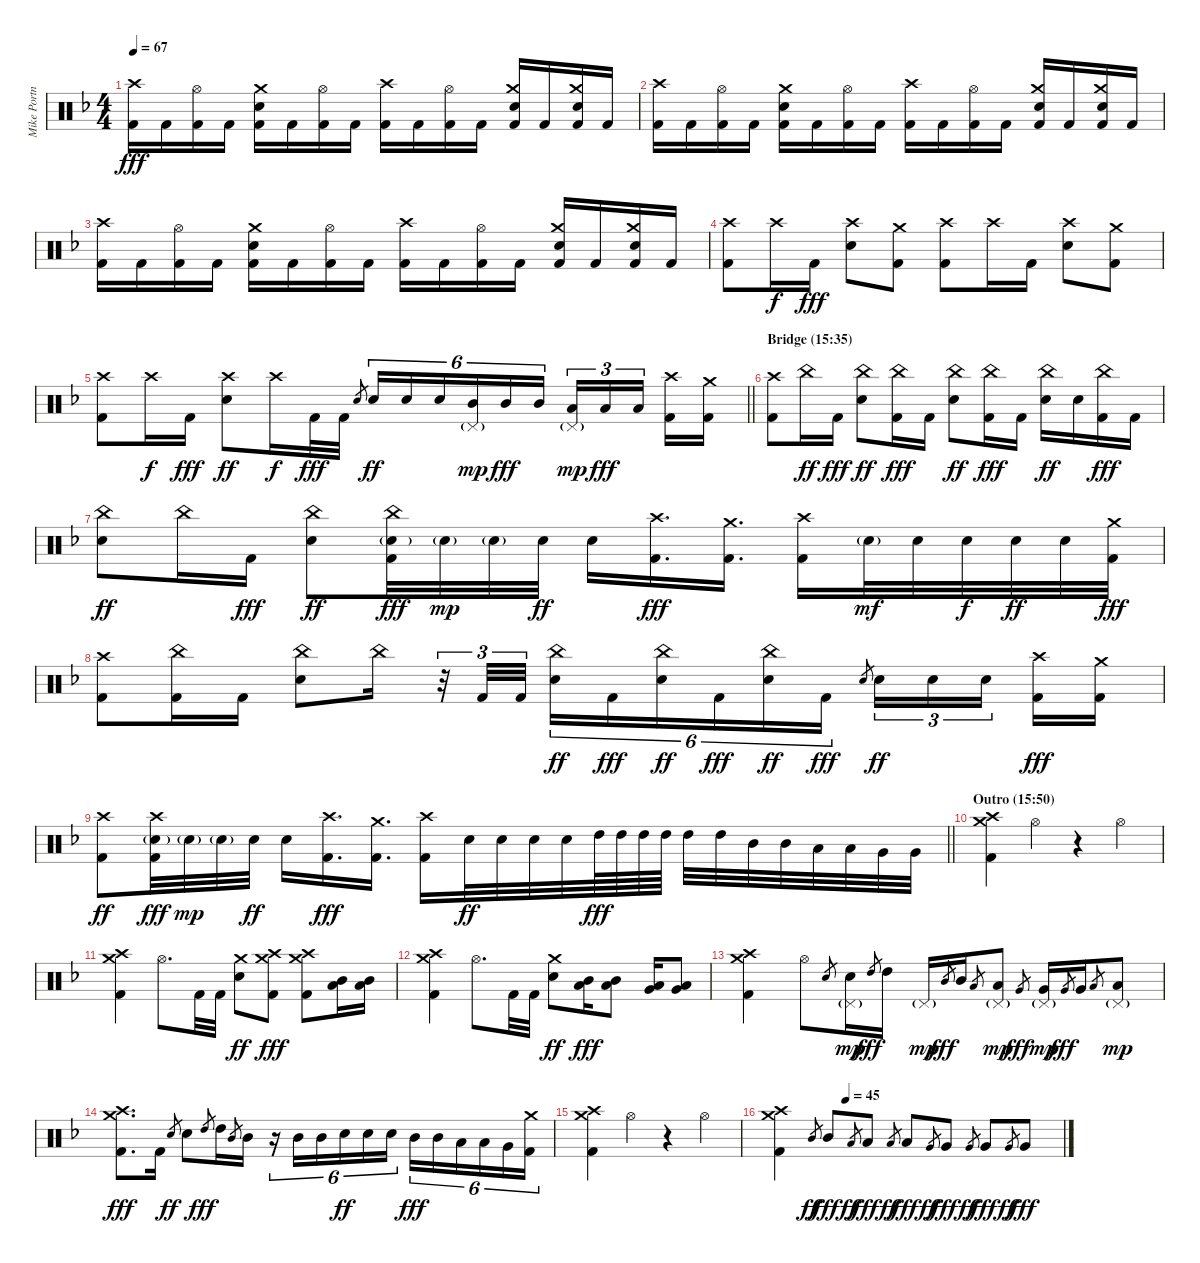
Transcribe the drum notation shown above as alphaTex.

\track ("Mike Portnoy Drums" "Mike Portn") {instrument percussion}
\staff {score}
\articulation defaults
\ts (4 4)
\tempo 67
\clef neutral
\ks dminor
("Crash high (hit)" "Kick (hit) 2").16{dy fff} "Kick (hit) 2".16 ("Hi-Hat (open)" "Kick (hit) 2").16 "Kick (hit) 2".16 ("Crash medium (hit)" "Electric Snare (hit)" "Kick (hit) 2").16 "Kick (hit) 2".16 ("Hi-Hat (open)" "Kick (hit) 2").16 "Kick (hit) 2".16 ("Crash high (hit)" "Kick (hit) 2").16 "Kick (hit) 2".16 ("Hi-Hat (open)" "Kick (hit) 2").16 "Kick (hit) 2".16 ("Crash medium (hit)" "Electric Snare (hit)" "Kick (hit) 2").16 "Kick (hit) 2".16 ("Crash medium (hit)" "Electric Snare (hit)" "Kick (hit) 2").16 "Kick (hit) 2".16 |
("Crash high (hit)" "Kick (hit) 2").16 "Kick (hit) 2".16 ("Hi-Hat (open)" "Kick (hit) 2").16 "Kick (hit) 2".16 ("Crash medium (hit)" "Electric Snare (hit)" "Kick (hit) 2").16 "Kick (hit) 2".16 ("Hi-Hat (open)" "Kick (hit) 2").16 "Kick (hit) 2".16 ("Crash high (hit)" "Kick (hit) 2").16 "Kick (hit) 2".16 ("Hi-Hat (open)" "Kick (hit) 2").16 "Kick (hit) 2".16 ("Crash medium (hit)" "Electric Snare (hit)" "Kick (hit) 2").16 "Kick (hit) 2".16 ("Crash medium (hit)" "Electric Snare (hit)" "Kick (hit) 2").16 "Kick (hit) 2".16 |
("Crash high (hit)" "Kick (hit) 2").16 "Kick (hit) 2".16 ("Hi-Hat (open)" "Kick (hit) 2").16 "Kick (hit) 2".16 ("Crash medium (hit)" "Electric Snare (hit)" "Kick (hit) 2").16 "Kick (hit) 2".16 ("Hi-Hat (open)" "Kick (hit) 2").16 "Kick (hit) 2".16 ("Crash high (hit)" "Kick (hit) 2").16 "Kick (hit) 2".16 ("Hi-Hat (open)" "Kick (hit) 2").16 "Kick (hit) 2".16 ("Crash medium (hit)" "Electric Snare (hit)" "Kick (hit) 2").16 "Kick (hit) 2".16 ("Crash medium (hit)" "Electric Snare (hit)" "Kick (hit) 2").16 "Kick (hit) 2".16 |
("Crash high (hit)" "Kick (hit) 2").8 "Crash high (hit)".16{dy f} "Kick (hit) 2".16{dy fff} ("Crash high (hit)" "Electric Snare (hit)").8 ("Crash medium (hit)" "Kick (hit) 2").8 ("Crash high (hit)" "Kick (hit) 2").8 "Crash high (hit)".16 "Kick (hit) 2".16 ("Crash high (hit)" "Electric Snare (hit)").8 ("Crash medium (hit)" "Kick (hit) 2").8 |
\barLineRight lightlight
("Crash high (hit)" "Kick (hit) 2").8 "Crash high (hit)".16{dy f} "Kick (hit) 2".16{dy fff} ("Crash high (hit)" "Electric Snare (hit)").8{dy ff} "Crash high (hit)".16{dy f} "Kick (hit) 2".32{dy fff} "Kick (hit) 2".32 "Electric Snare (hit)".8{gr} "Electric Snare (hit)".16{tu (6 4) dy ff} "Electric Snare (hit)".16{tu (6 4)} "Electric Snare (hit)".16{tu (6 4)} ("Mid Tom (hit)" "Pedal Hi-Hat (hit)"{g}).16{tu (6 4) dy mp} "Mid Tom (hit)".16{tu (6 4) dy fff} "Mid Tom (hit)".16{tu (6 4)} ("Low Tom (hit)" "Pedal Hi-Hat (hit)"{g}).16{tu (3 2) dy mp} "Low Tom (hit)".16{tu (3 2) dy fff} "Low Tom (hit)".16{tu (3 2) beam splitsecondary} ("Crash high (hit)" "Kick (hit) 2").16 ("Crash medium (hit)" "Kick (hit) 2").16 |
\section ("" "Bridge (15:35)")
("Crash high (hit)" "Kick (hit) 2").8 "China (hit)".16{dy ff} "Kick (hit) 2".16{dy fff} ("China (hit)" "Electric Snare (hit)").8{dy ff} ("China (hit)" "Kick (hit) 2").16{dy fff} "Kick (hit) 2".16 ("China (hit)" "Electric Snare (hit)").8{dy ff} ("China (hit)" "Kick (hit) 2").16{dy fff} "Kick (hit) 2".16 ("China (hit)" "Electric Snare (hit)").16{dy ff} "Electric Snare (hit)".16 ("China (hit)" "Kick (hit) 2").16{dy fff} "Kick (hit) 2".16 |
("China (hit)" "Electric Snare (hit)").8{dy ff} "China (hit)".16 "Kick (hit) 2".16{dy fff} ("China (hit)" "Electric Snare (hit)").8{dy ff} ("China (hit)" "Electric Snare (hit)"{g} "Kick (hit) 2").32{dy fff} "Electric Snare (hit)"{g}.32{dy mp} "Electric Snare (hit)"{g}.32 "Electric Snare (hit)".32{dy ff} "Electric Snare (hit)".16 ("Crash high (hit)" "Kick (hit) 2").16{d dy fff} ("Crash medium (hit)" "Kick (hit) 2").16{d} ("Crash high (hit)" "Kick (hit) 2").16 "Electric Snare (hit)"{g}.32{dy mf} "Electric Snare (hit)".32 "Electric Snare (hit)".32{dy f} "Electric Snare (hit)".32{dy ff} "Electric Snare (hit)".32 ("Crash medium (hit)" "Kick (hit) 2").32{dy fff} |
("Crash high (hit)" "Kick (hit) 2").8 ("China (hit)" "Kick (hit) 2").16 "Kick (hit) 2".16 ("China (hit)" "Electric Snare (hit)").8 "China (hit)".16 r.32{tu (3 2)} "Kick (hit) 2".32{tu (3 2)} "Kick (hit) 2".32{tu (3 2)} ("China (hit)" "Electric Snare (hit)").16{tu (6 4) dy ff} "Kick (hit) 2".16{tu (6 4) dy fff} ("China (hit)" "Electric Snare (hit)").16{tu (6 4) dy ff} "Kick (hit) 2".16{tu (6 4) dy fff} ("China (hit)" "Electric Snare (hit)").16{tu (6 4) dy ff} "Kick (hit) 2".16{tu (6 4) dy fff} "Electric Snare (hit)".8{gr} "Electric Snare (hit)".16{tu (3 2) dy ff} "Electric Snare (hit)".16{tu (3 2)} "Electric Snare (hit)".16{tu (3 2) beam splitsecondary} ("Crash high (hit)" "Kick (hit) 2").16{dy fff} ("Crash medium (hit)" "Kick (hit) 2").16 |
\barLineRight lightlight
("Crash high (hit)" "Kick (hit) 2").8{dy ff} ("Crash high (hit)" "Electric Snare (hit)"{g} "Kick (hit) 2").32{dy fff} "Electric Snare (hit)"{g}.32{dy mp} "Electric Snare (hit)"{g}.32 "Electric Snare (hit)".32{dy ff} "Electric Snare (hit)".16 ("Crash high (hit)" "Kick (hit) 2").16{d dy fff} ("Crash medium (hit)" "Kick (hit) 2").16{d} ("Crash high (hit)" "Kick (hit) 2").16 "Electric Snare (hit)".32{dy ff} "Electric Snare (hit)".32 "Electric Snare (hit)".32 "Electric Snare (hit)".32 "High Tom (hit)".64{dy fff} "High Tom (hit)".64 "High Tom (hit)".64 "High Tom (hit)".64 "High Tom (hit)".32 "High Tom (hit)".32 "Mid Tom (hit)".32 "Mid Tom (hit)".32 "Low Tom (hit)".32 "Low Tom (hit)".32 "Very Low Tom (hit)".32 "Very Low Tom (hit)".32 |
\section ("" "Outro (15:50)")
("Crash high (hit)" "Crash medium (hit)" "Kick (hit) 2").4 "Hi-Hat (open)".4 r.4 "Hi-Hat (open)".4 |
("Crash high (hit)" "Crash medium (hit)" "Kick (hit) 2").4 "Hi-Hat (open)".8{d} "Kick (hit) 2".32 "Kick (hit) 2".32 ("Crash medium (hit)" "Electric Snare (hit)").8{dy ff} ("Crash high (hit)" "Crash medium (hit)" "Kick (hit) 2").8{dy fff} ("Crash high (hit)" "Crash medium (hit)" "Kick (hit) 2").8 ("Mid Tom (hit)" "Low Tom (hit)").16 ("Mid Tom (hit)" "Low Tom (hit)").16 |
("Crash high (hit)" "Crash medium (hit)" "Kick (hit) 2").4 "Hi-Hat (open)".8{d} "Kick (hit) 2".32 "Kick (hit) 2".32 ("Crash medium (hit)" "Electric Snare (hit)").8{dy ff} ("Mid Tom (hit)" "Low Tom (hit)").16{dy fff} ("Mid Tom (hit)" "Low Tom (hit)").8 ("Low Tom (hit)" "Very Low Tom (hit)").16 ("Low Tom (hit)" "Very Low Tom (hit)").8 |
("Crash high (hit)" "Crash medium (hit)" "Kick (hit) 2").4 "Hi-Hat (open)".8 "Electric Snare (hit)".8{gr} ("Electric Snare (hit)" "Pedal Hi-Hat (hit)"{g}).16{dy mp} "High Tom (hit)".8{gr dy fff} "High Tom (hit)".16 "Pedal Hi-Hat (hit)"{g}.16{dy mp} "Mid Tom (hit)".8{gr dy fff} "Mid Tom (hit)".16 "Low Tom (hit)".8{gr} ("Low Tom (hit)" "Pedal Hi-Hat (hit)"{g}).8{dy mp} "Very Low Tom (hit)".8{gr dy fff} ("Very Low Tom (hit)" "Pedal Hi-Hat (hit)"{g}).16{dy mp} "Very Low Tom (hit)".8{gr dy fff} "Very Low Tom (hit)".16 "Low Floor Tom (hit)".8{gr} ("Low Floor Tom (hit)" "Pedal Hi-Hat (hit)"{g}).8{dy mp} |
("Crash high (hit)" "Crash medium (hit)" "Kick (hit) 2").8{d dy fff} "Kick (hit) 2".16 "Electric Snare (hit)".8{gr dy ff} "Electric Snare (hit)".8 "High Tom (hit)".8{gr dy fff} "High Tom (hit)".16 "Mid Tom (hit)".8{gr} "Mid Tom (hit)".16 r.16{tu (6 4)} "Mid Tom (hit)".16{tu (6 4)} "Mid Tom (hit)".16{tu (6 4)} "Electric Snare (hit)".16{tu (6 4) dy ff} "Electric Snare (hit)".16{tu (6 4)} "Electric Snare (hit)".16{tu (6 4)} "Mid Tom (hit)".16{tu (6 4) dy fff} "Mid Tom (hit)".16{tu (6 4)} "Low Tom (hit)".16{tu (6 4)} "Low Tom (hit)".16{tu (6 4)} "Very Low Tom (hit)".16{tu (6 4)} ("Crash medium (hit)" "Kick (hit) 2").16{tu (6 4)} |
("Crash high (hit)" "Crash medium (hit)" "Kick (hit) 2").4 "Hi-Hat (open)".4 r.4 "Hi-Hat (open)".4 |
\tempo (45 0.25)
("Crash high (hit)" "Crash medium (hit)" "Kick (hit) 2").4 "Mid Tom (hit)".8{gr dy ff} "Mid Tom (hit)".8{dy fff} "Low Tom (hit)".8{gr dy ff} "Low Tom (hit)".8{dy fff} "Low Tom (hit)".8{gr dy ff} "Low Tom (hit)".8{dy fff} "Very Low Tom (hit)".8{gr dy ff} "Very Low Tom (hit)".8{dy fff} "Very Low Tom (hit)".8{gr dy ff} "Very Low Tom (hit)".8{dy fff} "Very Low Tom (hit)".8{gr dy ff} "Very Low Tom (hit)".8{dy fff}
